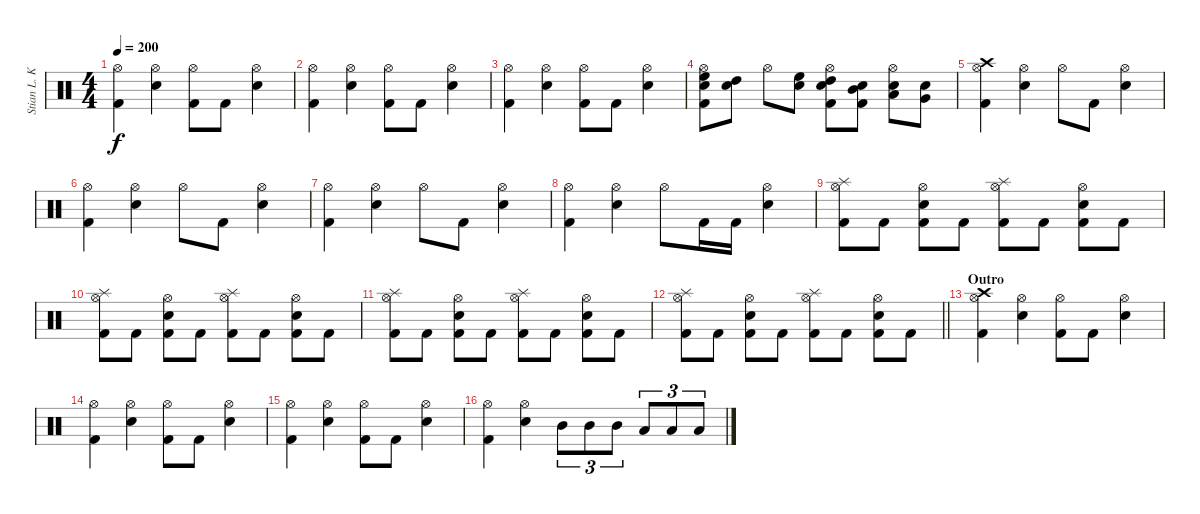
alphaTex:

\track ("Stian L. Kristoffersen - Drums" "Stian L. K") {instrument percussion}
\staff {score}
\articulation defaults
\ts (4 4)
\tempo 200
\clef neutral
\ks c
("Hi-Hat (open)" "Kick (hit) 2").4{dy f} ("Hi-Hat (open)" "Electric Snare (hit)").4 ("Hi-Hat (open)" "Kick (hit) 2").8 "Kick (hit) 2".8 ("Hi-Hat (open)" "Electric Snare (hit)").4 |
("Hi-Hat (open)" "Kick (hit) 2").4 ("Hi-Hat (open)" "Electric Snare (hit)").4 ("Hi-Hat (open)" "Kick (hit) 2").8 "Kick (hit) 2".8 ("Hi-Hat (open)" "Electric Snare (hit)").4 |
("Hi-Hat (open)" "Kick (hit) 2").4 ("Hi-Hat (open)" "Electric Snare (hit)").4 ("Hi-Hat (open)" "Kick (hit) 2").8 "Kick (hit) 2".8 ("Hi-Hat (open)" "Electric Snare (hit)").4 |
("Hi-Hat (open)" "Electric Snare (hit)" "High Floor Tom (hit)" "Kick (hit) 2").8 ("Electric Snare (hit)" "High Tom (hit)").8 "Hi-Hat (open)".8 ("Electric Snare (hit)" "High Floor Tom (hit)").8 ("Hi-Hat (open)" "Electric Snare (hit)" "High Tom (hit)" "Kick (hit) 2").8 ("Electric Snare (hit)" "Mid Tom (hit)" "Kick (hit) 2").8 ("Hi-Hat (open)" "Electric Snare (hit)" "Low Tom (hit)").8 ("Electric Snare (hit)" "Very Low Tom (hit)").8 |
("Crash high (hit)" "Hi-Hat (open)" "Kick (hit) 2").4 ("Hi-Hat (open)" "Electric Snare (hit)").4 "Hi-Hat (open)".8 "Kick (hit) 2".8 ("Hi-Hat (open)" "Electric Snare (hit)").4 |
("Hi-Hat (open)" "Kick (hit) 2").4 ("Hi-Hat (open)" "Electric Snare (hit)").4 "Hi-Hat (open)".8 "Kick (hit) 2".8 ("Hi-Hat (open)" "Electric Snare (hit)").4 |
("Hi-Hat (open)" "Kick (hit) 2").4 ("Hi-Hat (open)" "Electric Snare (hit)").4 "Hi-Hat (open)".8 "Kick (hit) 2".8 ("Hi-Hat (open)" "Electric Snare (hit)").4 |
("Hi-Hat (open)" "Kick (hit) 2").4 ("Hi-Hat (open)" "Electric Snare (hit)").4 "Hi-Hat (open)".8 "Kick (hit) 2".16 "Kick (hit) 2".16 ("Hi-Hat (open)" "Electric Snare (hit)").4 |
("Splash (hit)" "Hi-Hat (open)" "Kick (hit) 2").8 "Kick (hit) 2".8 ("Hi-Hat (open)" "Electric Snare (hit)" "Kick (hit) 2").8 "Kick (hit) 2".8 ("Splash (hit)" "Hi-Hat (open)" "Kick (hit) 2").8 "Kick (hit) 2".8 ("Hi-Hat (open)" "Electric Snare (hit)" "Kick (hit) 2").8 "Kick (hit) 2".8 |
("Splash (hit)" "Hi-Hat (open)" "Kick (hit) 2").8 "Kick (hit) 2".8 ("Hi-Hat (open)" "Electric Snare (hit)" "Kick (hit) 2").8 "Kick (hit) 2".8 ("Splash (hit)" "Hi-Hat (open)" "Kick (hit) 2").8 "Kick (hit) 2".8 ("Hi-Hat (open)" "Electric Snare (hit)" "Kick (hit) 2").8 "Kick (hit) 2".8 |
("Splash (hit)" "Hi-Hat (open)" "Kick (hit) 2").8 "Kick (hit) 2".8 ("Hi-Hat (open)" "Electric Snare (hit)" "Kick (hit) 2").8 "Kick (hit) 2".8 ("Splash (hit)" "Hi-Hat (open)" "Kick (hit) 2").8 "Kick (hit) 2".8 ("Hi-Hat (open)" "Electric Snare (hit)" "Kick (hit) 2").8 "Kick (hit) 2".8 |
\barLineRight lightlight
("Splash (hit)" "Hi-Hat (open)" "Kick (hit) 2").8 "Kick (hit) 2".8 ("Hi-Hat (open)" "Electric Snare (hit)" "Kick (hit) 2").8 "Kick (hit) 2".8 ("Splash (hit)" "Hi-Hat (open)" "Kick (hit) 2").8 "Kick (hit) 2".8 ("Hi-Hat (open)" "Electric Snare (hit)" "Kick (hit) 2").8 "Kick (hit) 2".8 |
\section ("" "Outro")
("Crash high (hit)" "Hi-Hat (open)" "Kick (hit) 2").4 ("Hi-Hat (open)" "Electric Snare (hit)").4 ("Hi-Hat (open)" "Kick (hit) 2").8 "Kick (hit) 2".8 ("Hi-Hat (open)" "Electric Snare (hit)").4 |
("Hi-Hat (open)" "Kick (hit) 2").4 ("Hi-Hat (open)" "Electric Snare (hit)").4 ("Hi-Hat (open)" "Kick (hit) 2").8 "Kick (hit) 2".8 ("Hi-Hat (open)" "Electric Snare (hit)").4 |
("Hi-Hat (open)" "Kick (hit) 2").4 ("Hi-Hat (open)" "Electric Snare (hit)").4 ("Hi-Hat (open)" "Kick (hit) 2").8 "Kick (hit) 2".8 ("Hi-Hat (open)" "Electric Snare (hit)").4 |
("Hi-Hat (open)" "Kick (hit) 2").4 ("Hi-Hat (open)" "Electric Snare (hit)").4 "Mid Tom (hit)".8{tu (3 2)} "Mid Tom (hit)".8{tu (3 2)} "Mid Tom (hit)".8{tu (3 2)} "Low Tom (hit)".8{tu (3 2)} "Low Tom (hit)".8{tu (3 2)} "Low Tom (hit)".8{tu (3 2)}
